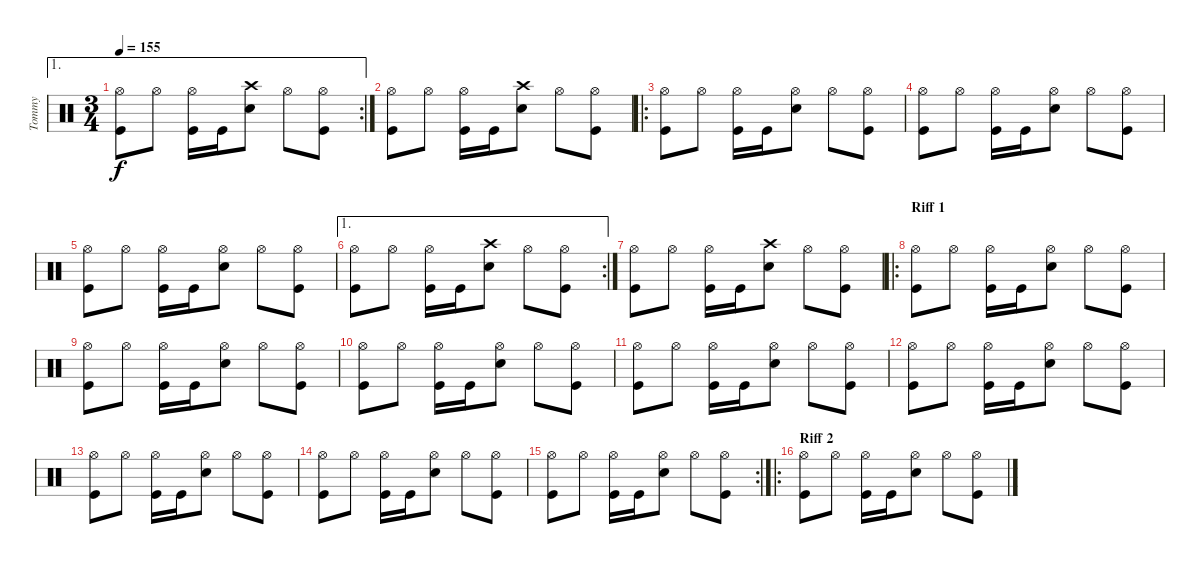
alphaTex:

\track ("Tommy" "Tommy") {instrument percussion}
\staff {score}
\articulation defaults
\ae 1
\rc 2
\ts (3 4)
\tempo 155
\clef neutral
\ks c
("Hi-Hat (open)" "Kick (hit)").8{dy f} "Hi-Hat (open)".8 ("Hi-Hat (open)" "Kick (hit)").16 "Kick (hit)".16 ("Crash high (hit)" "Electric Snare (hit)").8 "Hi-Hat (open)".8 ("Hi-Hat (open)" "Kick (hit)").8 |
("Hi-Hat (open)" "Kick (hit)").8 "Hi-Hat (open)".8 ("Hi-Hat (open)" "Kick (hit)").16 "Kick (hit)".16 ("Crash high (hit)" "Electric Snare (hit)").8 "Hi-Hat (open)".8 ("Hi-Hat (open)" "Kick (hit)").8 |
\ro
("Hi-Hat (open)" "Kick (hit)").8 "Hi-Hat (open)".8 ("Hi-Hat (open)" "Kick (hit)").16 "Kick (hit)".16 ("Electric Snare (hit)" "Hi-Hat (open)").8 "Hi-Hat (open)".8 ("Hi-Hat (open)" "Kick (hit)").8 |
("Hi-Hat (open)" "Kick (hit)").8 "Hi-Hat (open)".8 ("Hi-Hat (open)" "Kick (hit)").16 "Kick (hit)".16 ("Electric Snare (hit)" "Hi-Hat (open)").8 "Hi-Hat (open)".8 ("Hi-Hat (open)" "Kick (hit)").8 |
("Hi-Hat (open)" "Kick (hit)").8 "Hi-Hat (open)".8 ("Hi-Hat (open)" "Kick (hit)").16 "Kick (hit)".16 ("Electric Snare (hit)" "Hi-Hat (open)").8 "Hi-Hat (open)".8 ("Hi-Hat (open)" "Kick (hit)").8 |
\ae 1
\rc 2
("Hi-Hat (open)" "Kick (hit)").8 "Hi-Hat (open)".8 ("Hi-Hat (open)" "Kick (hit)").16 "Kick (hit)".16 ("Crash high (hit)" "Electric Snare (hit)").8 "Hi-Hat (open)".8 ("Hi-Hat (open)" "Kick (hit)").8 |
("Hi-Hat (open)" "Kick (hit)").8 "Hi-Hat (open)".8 ("Hi-Hat (open)" "Kick (hit)").16 "Kick (hit)".16 ("Crash high (hit)" "Electric Snare (hit)").8 "Hi-Hat (open)".8 ("Hi-Hat (open)" "Kick (hit)").8 |
\ro
\section ("" "Riff 1")
("Hi-Hat (open)" "Kick (hit)").8 "Hi-Hat (open)".8 ("Hi-Hat (open)" "Kick (hit)").16 "Kick (hit)".16 ("Electric Snare (hit)" "Hi-Hat (open)").8 "Hi-Hat (open)".8 ("Hi-Hat (open)" "Kick (hit)").8 |
("Hi-Hat (open)" "Kick (hit)").8 "Hi-Hat (open)".8 ("Hi-Hat (open)" "Kick (hit)").16 "Kick (hit)".16 ("Electric Snare (hit)" "Hi-Hat (open)").8 "Hi-Hat (open)".8 ("Hi-Hat (open)" "Kick (hit)").8 |
("Hi-Hat (open)" "Kick (hit)").8 "Hi-Hat (open)".8 ("Hi-Hat (open)" "Kick (hit)").16 "Kick (hit)".16 ("Electric Snare (hit)" "Hi-Hat (open)").8 "Hi-Hat (open)".8 ("Hi-Hat (open)" "Kick (hit)").8 |
("Hi-Hat (open)" "Kick (hit)").8 "Hi-Hat (open)".8 ("Hi-Hat (open)" "Kick (hit)").16 "Kick (hit)".16 ("Electric Snare (hit)" "Hi-Hat (open)").8 "Hi-Hat (open)".8 ("Hi-Hat (open)" "Kick (hit)").8 |
("Hi-Hat (open)" "Kick (hit)").8 "Hi-Hat (open)".8 ("Hi-Hat (open)" "Kick (hit)").16 "Kick (hit)".16 ("Electric Snare (hit)" "Hi-Hat (open)").8 "Hi-Hat (open)".8 ("Hi-Hat (open)" "Kick (hit)").8 |
("Hi-Hat (open)" "Kick (hit)").8 "Hi-Hat (open)".8 ("Hi-Hat (open)" "Kick (hit)").16 "Kick (hit)".16 ("Electric Snare (hit)" "Hi-Hat (open)").8 "Hi-Hat (open)".8 ("Hi-Hat (open)" "Kick (hit)").8 |
("Hi-Hat (open)" "Kick (hit)").8 "Hi-Hat (open)".8 ("Hi-Hat (open)" "Kick (hit)").16 "Kick (hit)".16 ("Electric Snare (hit)" "Hi-Hat (open)").8 "Hi-Hat (open)".8 ("Hi-Hat (open)" "Kick (hit)").8 |
\rc 2
("Hi-Hat (open)" "Kick (hit)").8 "Hi-Hat (open)".8 ("Hi-Hat (open)" "Kick (hit)").16 "Kick (hit)".16 ("Electric Snare (hit)" "Hi-Hat (open)").8 "Hi-Hat (open)".8 ("Hi-Hat (open)" "Kick (hit)").8 |
\ro
\section ("" "Riff 2")
("Hi-Hat (open)" "Kick (hit)").8 "Hi-Hat (open)".8 ("Hi-Hat (open)" "Kick (hit)").16 "Kick (hit)".16 ("Electric Snare (hit)" "Hi-Hat (open)").8 "Hi-Hat (open)".8 ("Hi-Hat (open)" "Kick (hit)").8
